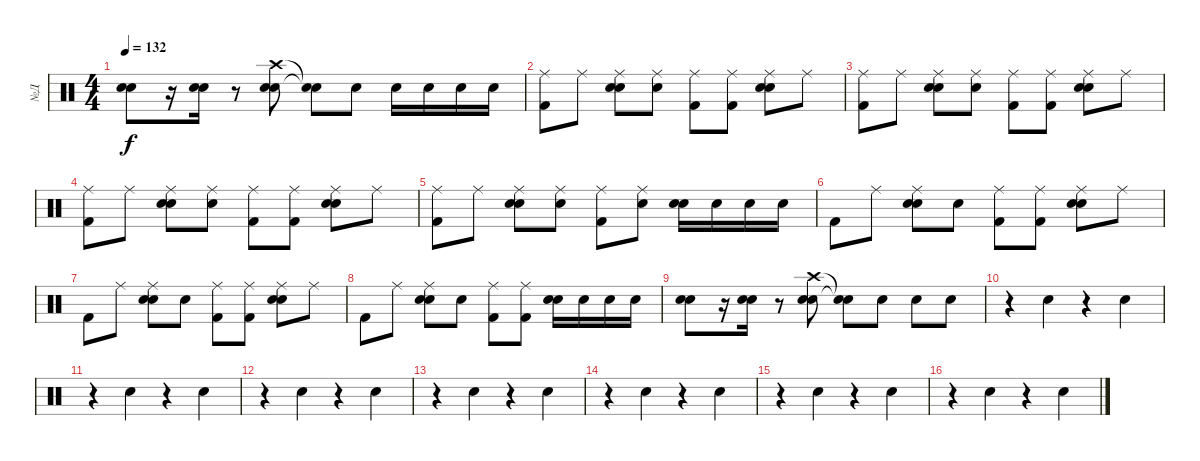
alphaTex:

\track ("№Д" "№Д") {instrument percussion}
\staff {score}
\articulation defaults
\ts (4 4)
\tempo 132
\clef neutral
\ks c
("Snare (hit) 2" "Electric Snare (hit)").8{dy f} r.16 ("Snare (hit) 2" "Electric Snare (hit)").16 r.8 ("Crash high (hit)" "Snare (hit) 2" "Electric Snare (hit)").8 ("Snare (hit)"{t} "Snare (hit)"{t}).8 "Snare (hit) 2".8 "Snare (hit) 2".16 "Snare (hit) 2".16 "Snare (hit) 2".16 "Snare (hit) 2".16 |
("Ride (middle)" "Kick (hit) 2").8 "Ride (middle)".8 ("Hand Clap (hit)" "Ride (middle)" "Snare (hit) 2").8 ("Hand Clap (hit)" "Ride (middle)").8 ("Ride (middle)" "Kick (hit) 2").8 ("Ride (middle)" "Kick (hit) 2").8 ("Hand Clap (hit)" "Ride (middle)" "Snare (hit) 2").8 "Ride (middle)".8 |
("Ride (middle)" "Kick (hit) 2").8 "Ride (middle)".8 ("Hand Clap (hit)" "Ride (middle)" "Snare (hit) 2").8 ("Hand Clap (hit)" "Ride (middle)").8 ("Ride (middle)" "Kick (hit) 2").8 ("Ride (middle)" "Kick (hit) 2").8 ("Hand Clap (hit)" "Ride (middle)" "Snare (hit) 2").8 "Ride (middle)".8 |
("Ride (middle)" "Kick (hit) 2").8 "Ride (middle)".8 ("Hand Clap (hit)" "Ride (middle)" "Snare (hit) 2").8 ("Hand Clap (hit)" "Ride (middle)").8 ("Ride (middle)" "Kick (hit) 2").8 ("Ride (middle)" "Kick (hit) 2").8 ("Hand Clap (hit)" "Ride (middle)" "Snare (hit) 2").8 "Ride (middle)".8 |
("Ride (middle)" "Kick (hit) 2").8 "Ride (middle)".8 ("Hand Clap (hit)" "Ride (middle)" "Snare (hit) 2").8 ("Hand Clap (hit)" "Ride (middle)").8 ("Ride (middle)" "Kick (hit) 2").8 ("Ride (middle)" "Snare (hit) 2").8 ("Hand Clap (hit)" "Snare (hit) 2").16 "Snare (hit) 2".16 "Snare (hit) 2".16 "Snare (hit) 2".16 |
"Kick (hit) 2".8 "Ride (middle)".8 ("Hand Clap (hit)" "Ride (middle)" "Snare (hit) 2").8 "Hand Clap (hit)".8 ("Ride (middle)" "Kick (hit) 2").8 ("Ride (middle)" "Kick (hit) 2").8 ("Hand Clap (hit)" "Ride (middle)" "Snare (hit) 2").8 "Ride (middle)".8 |
"Kick (hit) 2".8 "Ride (middle)".8 ("Hand Clap (hit)" "Ride (middle)" "Snare (hit) 2").8 "Hand Clap (hit)".8 ("Ride (middle)" "Kick (hit) 2").8 ("Ride (middle)" "Kick (hit) 2").8 ("Hand Clap (hit)" "Ride (middle)" "Snare (hit) 2").8 "Ride (middle)".8 |
"Kick (hit) 2".8 "Ride (middle)".8 ("Hand Clap (hit)" "Ride (middle)" "Snare (hit) 2").8 "Hand Clap (hit)".8 ("Ride (middle)" "Kick (hit) 2").8 ("Ride (middle)" "Kick (hit) 2").8 ("Hand Clap (hit)" "Snare (hit) 2").16 "Snare (hit) 2".16 "Snare (hit) 2".16 "Snare (hit) 2".16 |
("Snare (hit) 2" "Electric Snare (hit)").8 r.16 ("Snare (hit) 2" "Electric Snare (hit)").16 r.8 ("Crash high (hit)" "Snare (hit) 2" "Electric Snare (hit)").8 ("Snare (hit)"{t} "Snare (hit)"{t}).8 "Hand Clap (hit)".8 "Hand Clap (hit)".8 "Hand Clap (hit)".8 |
r.4 "Hand Clap (hit)".4 r.4 "Hand Clap (hit)".4 |
r.4 "Hand Clap (hit)".4 r.4 "Hand Clap (hit)".4 |
r.4 "Hand Clap (hit)".4 r.4 "Hand Clap (hit)".4 |
r.4 "Hand Clap (hit)".4 r.4 "Hand Clap (hit)".4 |
r.4 "Hand Clap (hit)".4 r.4 "Hand Clap (hit)".4 |
r.4 "Hand Clap (hit)".4 r.4 "Hand Clap (hit)".4 |
r.4 "Hand Clap (hit)".4 r.4 "Hand Clap (hit)".4
